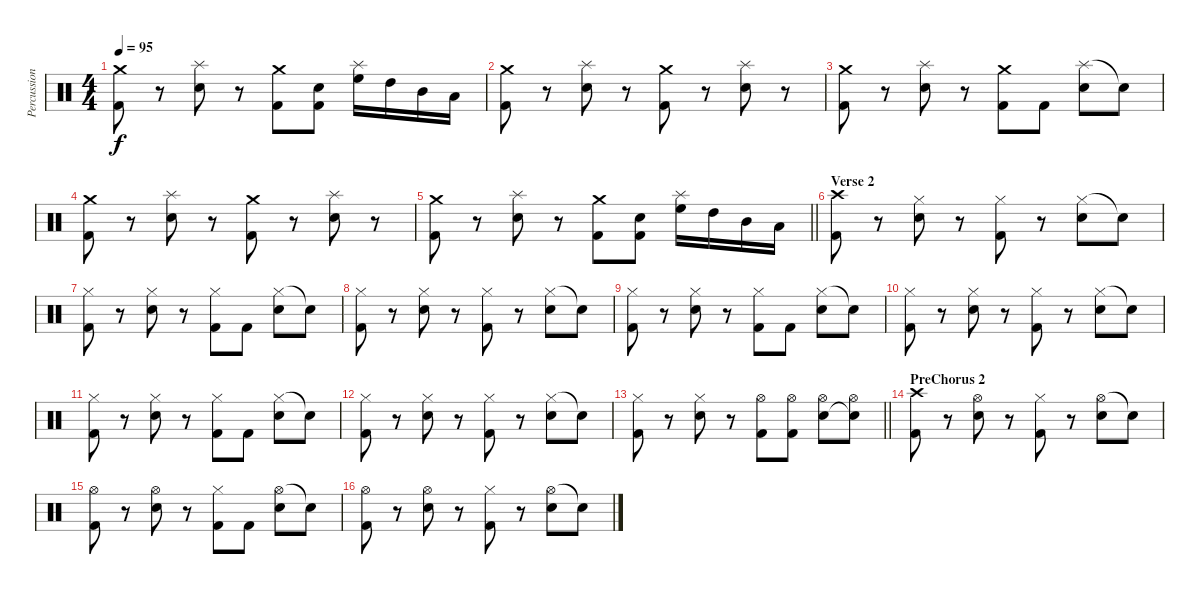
\track ("Percussion" "Percussion") {instrument percussion}
\staff {score}
\articulation defaults
\ts (4 4)
\tempo 95
\clef neutral
\ks c
("Crash medium (hit)" "Kick (hit) 2").8{dy f} r.8 ("Splash (hit)" "Snare (hit) 2").8 r.8 ("Crash medium (hit)" "Kick (hit) 2").8 ("Snare (hit) 2" "Kick (hit) 2").8 ("Splash (hit)" "High Floor Tom (hit)").16 "High Tom (hit)".16 "Mid Tom (hit)".16 "Low Tom (hit)".16 |
("Crash medium (hit)" "Kick (hit) 2").8 r.8 ("Splash (hit)" "Snare (hit) 2").8 r.8 ("Crash medium (hit)" "Kick (hit) 2").8 r.8 ("Splash (hit)" "Snare (hit) 2").8 r.8 |
("Crash medium (hit)" "Kick (hit) 2").8 r.8 ("Splash (hit)" "Snare (hit) 2").8 r.8 ("Crash medium (hit)" "Kick (hit) 2").8 "Kick (hit) 2".8 ("Splash (hit)" "Snare (hit) 2").8 "Snare (hit) 2"{t}.8 |
("Crash medium (hit)" "Kick (hit) 2").8 r.8 ("Splash (hit)" "Snare (hit) 2").8 r.8 ("Crash medium (hit)" "Kick (hit) 2").8 r.8 ("Splash (hit)" "Snare (hit) 2").8 r.8 |
\barLineRight lightlight
("Crash medium (hit)" "Kick (hit) 2").8 r.8 ("Splash (hit)" "Snare (hit) 2").8 r.8 ("Crash medium (hit)" "Kick (hit) 2").8 ("Snare (hit) 2" "Kick (hit) 2").8 ("Splash (hit)" "High Floor Tom (hit)").16 "High Tom (hit)".16 "Mid Tom (hit)".16 "Low Tom (hit)".16 |
\section ("" "Verse 2")
("Crash high (hit)" "Kick (hit) 2").8 r.8 ("Hi-Hat (closed)" "Snare (hit) 2").8 r.8 ("Hi-Hat (closed)" "Kick (hit) 2").8 r.8 ("Hi-Hat (closed)" "Snare (hit) 2").8 "Snare (hit) 2"{t}.8 |
("Hi-Hat (closed)" "Kick (hit) 2").8 r.8 ("Hi-Hat (closed)" "Snare (hit) 2").8 r.8 ("Hi-Hat (closed)" "Kick (hit) 2").8 "Kick (hit) 2".8 ("Hi-Hat (closed)" "Snare (hit) 2").8 "Snare (hit) 2"{t}.8 |
("Hi-Hat (closed)" "Kick (hit) 2").8 r.8 ("Hi-Hat (closed)" "Snare (hit) 2").8 r.8 ("Hi-Hat (closed)" "Kick (hit) 2").8 r.8 ("Hi-Hat (closed)" "Snare (hit) 2").8 "Snare (hit) 2"{t}.8 |
("Hi-Hat (closed)" "Kick (hit) 2").8 r.8 ("Hi-Hat (closed)" "Snare (hit) 2").8 r.8 ("Hi-Hat (closed)" "Kick (hit) 2").8 "Kick (hit) 2".8 ("Hi-Hat (closed)" "Snare (hit) 2").8 "Snare (hit) 2"{t}.8 |
("Hi-Hat (closed)" "Kick (hit) 2").8 r.8 ("Hi-Hat (closed)" "Snare (hit) 2").8 r.8 ("Hi-Hat (closed)" "Kick (hit) 2").8 r.8 ("Hi-Hat (closed)" "Snare (hit) 2").8 "Snare (hit) 2"{t}.8 |
("Hi-Hat (closed)" "Kick (hit) 2").8 r.8 ("Hi-Hat (closed)" "Snare (hit) 2").8 r.8 ("Hi-Hat (closed)" "Kick (hit) 2").8 "Kick (hit) 2".8 ("Hi-Hat (closed)" "Snare (hit) 2").8 "Snare (hit) 2"{t}.8 |
("Hi-Hat (closed)" "Kick (hit) 2").8 r.8 ("Hi-Hat (closed)" "Snare (hit) 2").8 r.8 ("Hi-Hat (closed)" "Kick (hit) 2").8 r.8 ("Hi-Hat (closed)" "Snare (hit) 2").8 "Snare (hit) 2"{t}.8 |
\barLineRight lightlight
("Hi-Hat (closed)" "Kick (hit) 2").8 r.8 ("Hi-Hat (closed)" "Snare (hit) 2").8 r.8 ("Hi-Hat (open)" "Kick (hit) 2").8 ("Hi-Hat (open)" "Kick (hit) 2").8 ("Hi-Hat (open)" "Snare (hit) 2").8 ("Hi-Hat (open)" "Snare (hit) 2"{t}).8 |
\section ("" "PreChorus 2")
("Crash high (hit)" "Kick (hit) 2").8 r.8 ("Hi-Hat (open)" "Snare (hit) 2").8 r.8 ("Hi-Hat (closed)" "Kick (hit) 2").8 r.8 ("Hi-Hat (open)" "Snare (hit) 2").8 "Snare (hit) 2"{t}.8 |
("Hi-Hat (open)" "Kick (hit) 2").8 r.8 ("Hi-Hat (open)" "Snare (hit) 2").8 r.8 ("Hi-Hat (closed)" "Kick (hit) 2").8 "Kick (hit) 2".8 ("Hi-Hat (open)" "Snare (hit) 2").8 "Snare (hit) 2"{t}.8 |
("Hi-Hat (open)" "Kick (hit) 2").8 r.8 ("Hi-Hat (open)" "Snare (hit) 2").8 r.8 ("Hi-Hat (closed)" "Kick (hit) 2").8 r.8 ("Hi-Hat (open)" "Snare (hit) 2").8 "Snare (hit) 2"{t}.8
